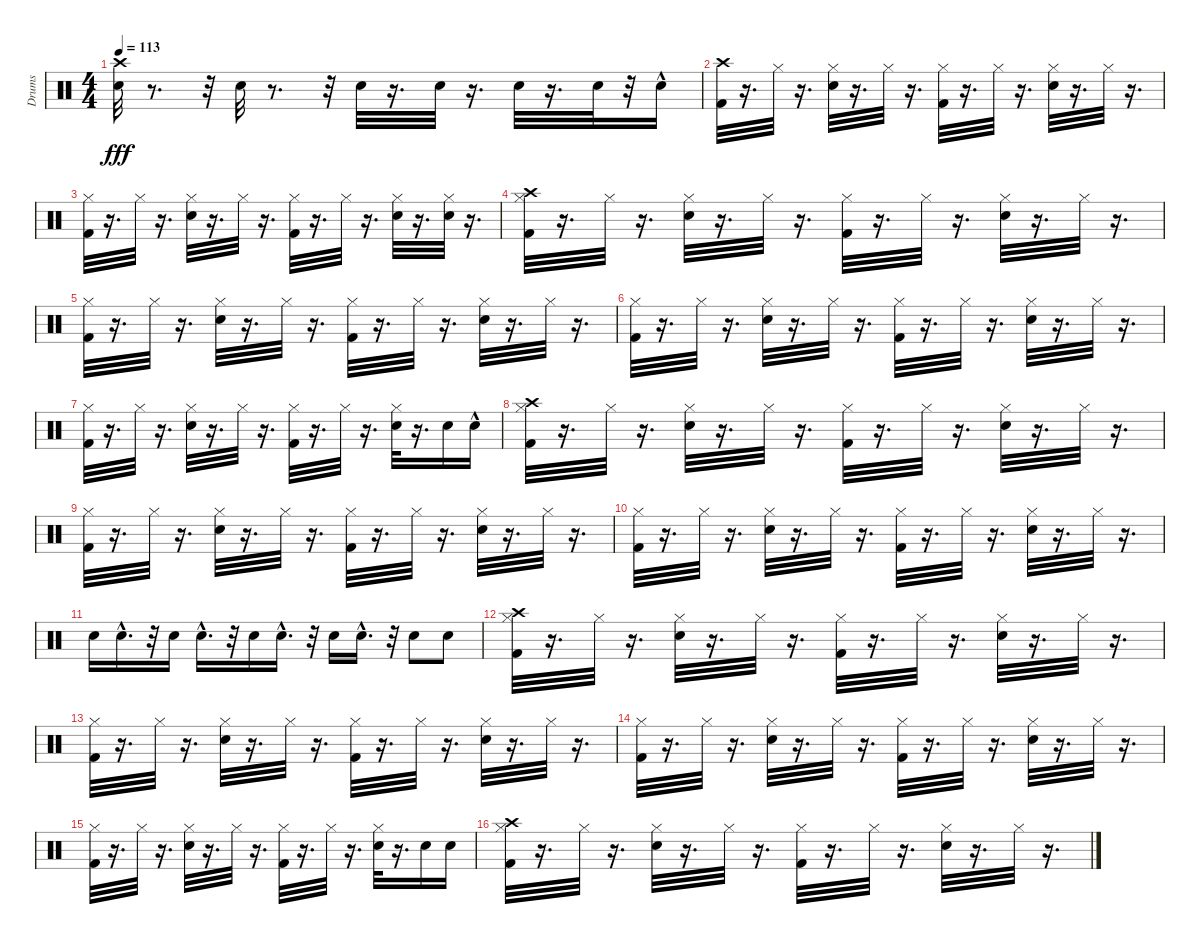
\track ("Drums" "Drums") {instrument percussion}
\staff {score}
\articulation defaults
\ts (4 4)
\tempo 113
\clef neutral
\ks c
("Snare (hit) 2" "Crash high (hit)").32{dy fff} r.8{d} r.32 "Snare (hit) 2".32 r.8{d} r.32 "Snare (hit) 2".32 r.16{d} "Snare (hit) 2".32 r.16{d} "Snare (hit) 2".32 r.16{d} "Snare (hit) 2".32 r.32 "Snare (hit) 2"{hac}.16 |
("Kick (hit) 2" "Crash high (hit)").32 r.16{d} "Hi-Hat (closed)".32 r.16{d} ("Snare (hit) 2" "Hi-Hat (closed)").32 r.16{d} "Hi-Hat (closed)".32 r.16{d} ("Kick (hit) 2" "Hi-Hat (closed)").32 r.16{d} "Hi-Hat (closed)".32 r.16{d} ("Snare (hit) 2" "Hi-Hat (closed)").32 r.16{d} "Hi-Hat (closed)".32 r.16{d} |
("Kick (hit) 2" "Hi-Hat (closed)").32 r.16{d} "Hi-Hat (closed)".32 r.16{d} ("Snare (hit) 2" "Hi-Hat (closed)").32 r.16{d} "Hi-Hat (closed)".32 r.16{d} ("Kick (hit) 2" "Hi-Hat (closed)").32 r.16{d} "Hi-Hat (closed)".32 r.16{d} ("Snare (hit) 2" "Hi-Hat (closed)").32 r.16{d} ("Snare (hit) 2" "Hi-Hat (closed)").32 r.16{d} |
("Kick (hit) 2" "Hi-Hat (closed)" "Crash high (hit)").32 r.16{d} "Hi-Hat (closed)".32 r.16{d} ("Snare (hit) 2" "Hi-Hat (closed)").32 r.16{d} "Hi-Hat (closed)".32 r.16{d} ("Kick (hit) 2" "Hi-Hat (closed)").32 r.16{d} "Hi-Hat (closed)".32 r.16{d} ("Snare (hit) 2" "Hi-Hat (closed)").32 r.16{d} "Hi-Hat (closed)".32 r.16{d} |
("Kick (hit) 2" "Hi-Hat (closed)").32 r.16{d} "Hi-Hat (closed)".32 r.16{d} ("Snare (hit) 2" "Hi-Hat (closed)").32 r.16{d} "Hi-Hat (closed)".32 r.16{d} ("Kick (hit) 2" "Hi-Hat (closed)").32 r.16{d} "Hi-Hat (closed)".32 r.16{d} ("Snare (hit) 2" "Hi-Hat (closed)").32 r.16{d} "Hi-Hat (closed)".32 r.16{d} |
("Kick (hit) 2" "Hi-Hat (closed)").32 r.16{d} "Hi-Hat (closed)".32 r.16{d} ("Snare (hit) 2" "Hi-Hat (closed)").32 r.16{d} "Hi-Hat (closed)".32 r.16{d} ("Kick (hit) 2" "Hi-Hat (closed)").32 r.16{d} "Hi-Hat (closed)".32 r.16{d} ("Snare (hit) 2" "Hi-Hat (closed)").32 r.16{d} "Hi-Hat (closed)".32 r.16{d} |
("Kick (hit) 2" "Hi-Hat (closed)").32 r.16{d} "Hi-Hat (closed)".32 r.16{d} ("Snare (hit) 2" "Hi-Hat (closed)").32 r.16{d} "Hi-Hat (closed)".32 r.16{d} ("Kick (hit) 2" "Hi-Hat (closed)").32 r.16{d} "Hi-Hat (closed)".32 r.16{d} ("Snare (hit) 2" "Hi-Hat (closed)").32 r.16{d} "Snare (hit) 2".16 "Snare (hit) 2"{hac}.16 |
("Kick (hit) 2" "Hi-Hat (closed)" "Crash high (hit)").32 r.16{d} "Hi-Hat (closed)".32 r.16{d} ("Snare (hit) 2" "Hi-Hat (closed)").32 r.16{d} "Hi-Hat (closed)".32 r.16{d} ("Kick (hit) 2" "Hi-Hat (closed)").32 r.16{d} "Hi-Hat (closed)".32 r.16{d} ("Snare (hit) 2" "Hi-Hat (closed)").32 r.16{d} "Hi-Hat (closed)".32 r.16{d} |
("Kick (hit) 2" "Hi-Hat (closed)").32 r.16{d} "Hi-Hat (closed)".32 r.16{d} ("Snare (hit) 2" "Hi-Hat (closed)").32 r.16{d} "Hi-Hat (closed)".32 r.16{d} ("Kick (hit) 2" "Hi-Hat (closed)").32 r.16{d} "Hi-Hat (closed)".32 r.16{d} ("Snare (hit) 2" "Hi-Hat (closed)").32 r.16{d} "Hi-Hat (closed)".32 r.16{d} |
("Kick (hit) 2" "Hi-Hat (closed)").32 r.16{d} "Hi-Hat (closed)".32 r.16{d} ("Snare (hit) 2" "Hi-Hat (closed)").32 r.16{d} "Hi-Hat (closed)".32 r.16{d} ("Kick (hit) 2" "Hi-Hat (closed)").32 r.16{d} "Hi-Hat (closed)".32 r.16{d} ("Snare (hit) 2" "Hi-Hat (closed)").32 r.16{d} "Hi-Hat (closed)".32 r.16{d} |
"Snare (hit) 2".16 "Snare (hit) 2"{hac}.16{d} r.32 "Snare (hit) 2".16 "Snare (hit) 2"{hac}.16{d} r.32 "Snare (hit) 2".16 "Snare (hit) 2"{hac}.16{d} r.32 "Snare (hit) 2".16 "Snare (hit) 2"{hac}.16{d} r.32 "Snare (hit) 2".8 "Snare (hit) 2".8 |
("Kick (hit) 2" "Hi-Hat (closed)" "Crash high (hit)").32 r.16{d} "Hi-Hat (closed)".32 r.16{d} ("Snare (hit) 2" "Hi-Hat (closed)").32 r.16{d} "Hi-Hat (closed)".32 r.16{d} ("Kick (hit) 2" "Hi-Hat (closed)").32 r.16{d} "Hi-Hat (closed)".32 r.16{d} ("Snare (hit) 2" "Hi-Hat (closed)").32 r.16{d} "Hi-Hat (closed)".32 r.16{d} |
("Kick (hit) 2" "Hi-Hat (closed)").32 r.16{d} "Hi-Hat (closed)".32 r.16{d} ("Snare (hit) 2" "Hi-Hat (closed)").32 r.16{d} "Hi-Hat (closed)".32 r.16{d} ("Kick (hit) 2" "Hi-Hat (closed)").32 r.16{d} "Hi-Hat (closed)".32 r.16{d} ("Snare (hit) 2" "Hi-Hat (closed)").32 r.16{d} "Hi-Hat (closed)".32 r.16{d} |
("Kick (hit) 2" "Hi-Hat (closed)").32 r.16{d} "Hi-Hat (closed)".32 r.16{d} ("Snare (hit) 2" "Hi-Hat (closed)").32 r.16{d} "Hi-Hat (closed)".32 r.16{d} ("Kick (hit) 2" "Hi-Hat (closed)").32 r.16{d} "Hi-Hat (closed)".32 r.16{d} ("Snare (hit) 2" "Hi-Hat (closed)").32 r.16{d} "Hi-Hat (closed)".32 r.16{d} |
("Kick (hit) 2" "Hi-Hat (closed)").32 r.16{d} "Hi-Hat (closed)".32 r.16{d} ("Snare (hit) 2" "Hi-Hat (closed)").32 r.16{d} "Hi-Hat (closed)".32 r.16{d} ("Kick (hit) 2" "Hi-Hat (closed)").32 r.16{d} "Hi-Hat (closed)".32 r.16{d} ("Snare (hit) 2" "Hi-Hat (closed)").32 r.16{d} "Snare (hit) 2".16 "Snare (hit) 2".16 |
("Kick (hit) 2" "Hi-Hat (closed)" "Crash high (hit)").32 r.16{d} "Hi-Hat (closed)".32 r.16{d} ("Snare (hit) 2" "Hi-Hat (closed)").32 r.16{d} "Hi-Hat (closed)".32 r.16{d} ("Kick (hit) 2" "Hi-Hat (closed)").32 r.16{d} "Hi-Hat (closed)".32 r.16{d} ("Snare (hit) 2" "Hi-Hat (closed)").32 r.16{d} "Hi-Hat (closed)".32 r.16{d}
